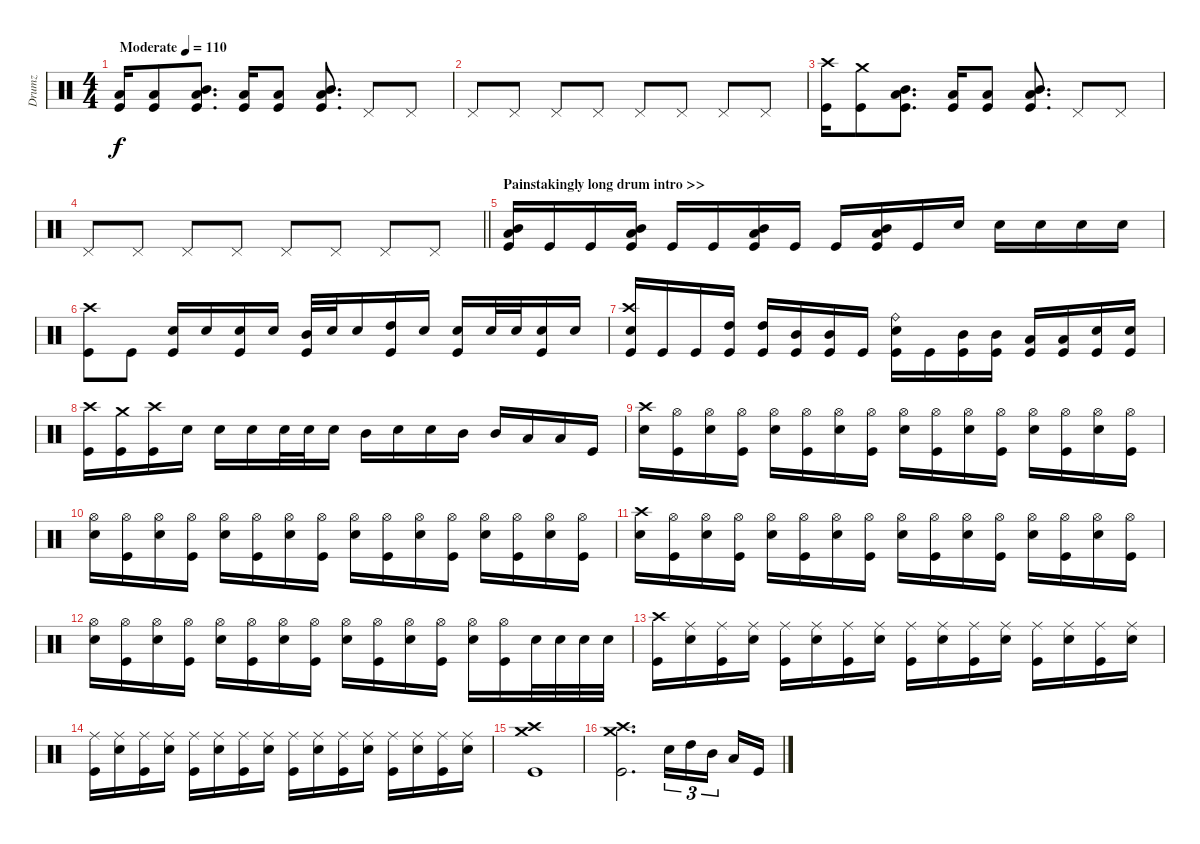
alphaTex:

\track ("Drumz" "Drumz") {instrument percussion}
\staff {score}
\articulation defaults
\ts (4 4)
\tempo (110 "Moderate")
\clef neutral
\ks c
("Kick (hit)" "Low Tom (hit)").16{dy f} ("Kick (hit)" "Low Tom (hit)").8 ("Kick (hit)" "Low Tom (hit)" "Mid Tom (hit)").8{d} ("Kick (hit)" "Low Tom (hit)").16 ("Kick (hit)" "Low Tom (hit)").8 ("Kick (hit)" "Low Tom (hit)" "Mid Tom (hit)").8{d} "Pedal Hi-Hat (hit)".8 "Pedal Hi-Hat (hit)".8 |
"Pedal Hi-Hat (hit)".8 "Pedal Hi-Hat (hit)".8 "Pedal Hi-Hat (hit)".8 "Pedal Hi-Hat (hit)".8 "Pedal Hi-Hat (hit)".8 "Pedal Hi-Hat (hit)".8 "Pedal Hi-Hat (hit)".8 "Pedal Hi-Hat (hit)".8 |
("Kick (hit)" "Crash high (hit)").16 ("Kick (hit)" "Crash medium (hit)").8 ("Kick (hit)" "Low Tom (hit)" "Mid Tom (hit)").8{d} ("Kick (hit)" "Low Tom (hit)").16 ("Kick (hit)" "Low Tom (hit)").8 ("Kick (hit)" "Low Tom (hit)" "Mid Tom (hit)").8{d} "Pedal Hi-Hat (hit)".8 "Pedal Hi-Hat (hit)".8 |
\barLineRight lightlight "Pedal Hi-Hat (hit)".8 "Pedal Hi-Hat (hit)".8 "Pedal Hi-Hat (hit)".8 "Pedal Hi-Hat (hit)".8 "Pedal Hi-Hat (hit)".8 "Pedal Hi-Hat (hit)".8 "Pedal Hi-Hat (hit)".8 "Pedal Hi-Hat (hit)".8
|
\section ("" "Painstakingly long drum intro >>")
("Kick (hit)" "Mid Tom (hit)" "Low Tom (hit)").16 "Kick (hit)".16 "Kick (hit)".16 ("Kick (hit)" "Mid Tom (hit)" "Low Tom (hit)").16 "Kick (hit)".16 "Kick (hit)".16 ("Kick (hit)" "Mid Tom (hit)" "Low Tom (hit)").16 "Kick (hit)".16 "Kick (hit)".16 ("Kick (hit)" "Mid Tom (hit)" "Low Tom (hit)").16 "Kick (hit)".16 "Snare (hit) 2".16 "Snare (hit) 2".16 "Snare (hit) 2".16 "Snare (hit) 2".16 "Snare (hit) 2".16 |
("Kick (hit)" "Crash high (hit)").8 "Kick (hit)".8 ("Kick (hit)" "Snare (hit) 2").16 "Snare (hit) 2".16 ("Snare (hit) 2" "Kick (hit)").16 "Snare (hit) 2".16 ("Mid Tom (hit)" "Kick (hit)").32 "Snare (hit) 2".32 "Snare (hit) 2".16 ("High Tom (hit)" "Kick (hit)").16 "Snare (hit) 2".16 ("Snare (hit) 2" "Kick (hit)").16 "Snare (hit) 2".32 "Snare (hit) 2".32 ("Snare (hit) 2" "Kick (hit)").16 "Snare (hit) 2".16 |
("Kick (hit)" "Crash high (hit)" "Snare (hit) 2").16 "Kick (hit)".16 "Kick (hit)".16 ("Kick (hit)" "High Tom (hit)").16 ("Kick (hit)" "High Tom (hit)").16 ("Kick (hit)" "Mid Tom (hit)").16 ("Kick (hit)" "Mid Tom (hit)").16 "Kick (hit)".16 ("Kick (hit)" "Ride (bell)" "Snare (hit) 2").16 "Kick (hit)".16 ("Kick (hit)" "Mid Tom (hit)").16 ("Kick (hit)" "Mid Tom (hit)").16 ("Kick (hit)" "Low Tom (hit)").16 ("Kick (hit)" "Low Tom (hit)").16 ("Kick (hit)" "Snare (hit) 2").16 ("Kick (hit)" "Snare (hit) 2").16 |
("Kick (hit)" "Crash high (hit)").16 ("Kick (hit)" "Crash medium (hit)").16 ("Kick (hit)" "Crash high (hit)").16 "Snare (hit) 2".16 "Snare (hit) 2".16 "Snare (hit) 2".16 "Snare (hit) 2".32 "Snare (hit) 2".32 "Snare (hit) 2".16 "Mid Tom (hit)".16 "Snare (hit) 2".16 "Snare (hit) 2".16 "Mid Tom (hit)".16 "Mid Tom (hit)".16 "Low Tom (hit)".16 "Low Tom (hit)".16 "Kick (hit)".16 |
("Snare (hit) 2" "Crash high (hit)").16 ("Kick (hit)" "Hi-Hat (open)").16 ("Snare (hit) 2" "Hi-Hat (open)").16 ("Kick (hit)" "Hi-Hat (open)").16 ("Snare (hit) 2" "Hi-Hat (open)").16 ("Kick (hit)" "Hi-Hat (open)").16 ("Snare (hit) 2" "Hi-Hat (open)").16 ("Kick (hit)" "Hi-Hat (open)").16 ("Snare (hit) 2" "Hi-Hat (open)").16 ("Kick (hit)" "Hi-Hat (open)").16 ("Snare (hit) 2" "Hi-Hat (open)").16 ("Kick (hit)" "Hi-Hat (open)").16 ("Snare (hit) 2" "Hi-Hat (open)").16 ("Kick (hit)" "Hi-Hat (open)").16 ("Snare (hit) 2" "Hi-Hat (open)").16 ("Kick (hit)" "Hi-Hat (open)").16 |
("Snare (hit) 2" "Hi-Hat (open)").16 ("Kick (hit)" "Hi-Hat (open)").16 ("Snare (hit) 2" "Hi-Hat (open)").16 ("Kick (hit)" "Hi-Hat (open)").16 ("Snare (hit) 2" "Hi-Hat (open)").16 ("Kick (hit)" "Hi-Hat (open)").16 ("Snare (hit) 2" "Hi-Hat (open)").16 ("Kick (hit)" "Hi-Hat (open)").16 ("Snare (hit) 2" "Hi-Hat (open)").16 ("Kick (hit)" "Hi-Hat (open)").16 ("Snare (hit) 2" "Hi-Hat (open)").16 ("Kick (hit)" "Hi-Hat (open)").16 ("Snare (hit) 2" "Hi-Hat (open)").16 ("Kick (hit)" "Hi-Hat (open)").16 ("Snare (hit) 2" "Hi-Hat (open)").16 ("Kick (hit)" "Hi-Hat (open)").16 |
("Snare (hit) 2" "Crash high (hit)").16 ("Kick (hit)" "Hi-Hat (open)").16 ("Snare (hit) 2" "Hi-Hat (open)").16 ("Kick (hit)" "Hi-Hat (open)").16 ("Snare (hit) 2" "Hi-Hat (open)").16 ("Kick (hit)" "Hi-Hat (open)").16 ("Snare (hit) 2" "Hi-Hat (open)").16 ("Kick (hit)" "Hi-Hat (open)").16 ("Snare (hit) 2" "Hi-Hat (open)").16 ("Kick (hit)" "Hi-Hat (open)").16 ("Snare (hit) 2" "Hi-Hat (open)").16 ("Kick (hit)" "Hi-Hat (open)").16 ("Snare (hit) 2" "Hi-Hat (open)").16 ("Kick (hit)" "Hi-Hat (open)").16 ("Snare (hit) 2" "Hi-Hat (open)").16 ("Kick (hit)" "Hi-Hat (open)").16 |
("Snare (hit) 2" "Hi-Hat (open)").16 ("Kick (hit)" "Hi-Hat (open)").16 ("Snare (hit) 2" "Hi-Hat (open)").16 ("Kick (hit)" "Hi-Hat (open)").16 ("Snare (hit) 2" "Hi-Hat (open)").16 ("Kick (hit)" "Hi-Hat (open)").16 ("Snare (hit) 2" "Hi-Hat (open)").16 ("Kick (hit)" "Hi-Hat (open)").16 ("Snare (hit) 2" "Hi-Hat (open)").16 ("Kick (hit)" "Hi-Hat (open)").16 ("Snare (hit) 2" "Hi-Hat (open)").16 ("Kick (hit)" "Hi-Hat (open)").16 ("Snare (hit) 2" "Hi-Hat (open)").16 ("Kick (hit)" "Hi-Hat (open)").16 "Snare (hit) 2".32 "Snare (hit) 2".32 "Snare (hit) 2".32 "Snare (hit) 2".32 |
("Kick (hit)" "Crash high (hit)").16 ("Ride (middle)" "Snare (hit) 2").16 ("Kick (hit)" "Ride (middle)").16 ("Snare (hit) 2" "Ride (middle)").16 ("Kick (hit)" "Ride (middle)").16 ("Snare (hit) 2" "Ride (middle)").16 ("Kick (hit)" "Ride (middle)").16 ("Snare (hit) 2" "Ride (middle)").16 ("Kick (hit)" "Ride (middle)").16 ("Snare (hit) 2" "Ride (middle)").16 ("Kick (hit)" "Ride (middle)").16 ("Snare (hit) 2" "Ride (middle)").16 ("Kick (hit)" "Ride (middle)").16 ("Snare (hit) 2" "Ride (middle)").16 ("Kick (hit)" "Ride (middle)").16 ("Snare (hit) 2" "Ride (middle)").16 |
("Kick (hit)" "Ride (middle)").16 ("Snare (hit) 2" "Ride (middle)").16 ("Kick (hit)" "Ride (middle)").16 ("Snare (hit) 2" "Ride (middle)").16 ("Kick (hit)" "Ride (middle)").16 ("Snare (hit) 2" "Ride (middle)").16 ("Kick (hit)" "Ride (middle)").16 ("Snare (hit) 2" "Ride (middle)").16 ("Kick (hit)" "Ride (middle)").16 ("Snare (hit) 2" "Ride (middle)").16 ("Kick (hit)" "Ride (middle)").16 ("Snare (hit) 2" "Ride (middle)").16 ("Kick (hit)" "Ride (middle)").16 ("Snare (hit) 2" "Ride (middle)").16 ("Kick (hit)" "Ride (middle)").16 ("Snare (hit) 2" "Ride (middle)").16 |
("Kick (hit)" "Crash high (hit)" "Crash medium (hit)").1 |
("Kick (hit)" "Crash high (hit)" "Crash medium (hit)").2{d} "Snare (hit) 2".16{tu (3 2)} "High Tom (hit)".16{tu (3 2)} "Mid Tom (hit)".16{tu (3 2) beam splitsecondary} "Low Tom (hit)".16 "Kick (hit)".16
